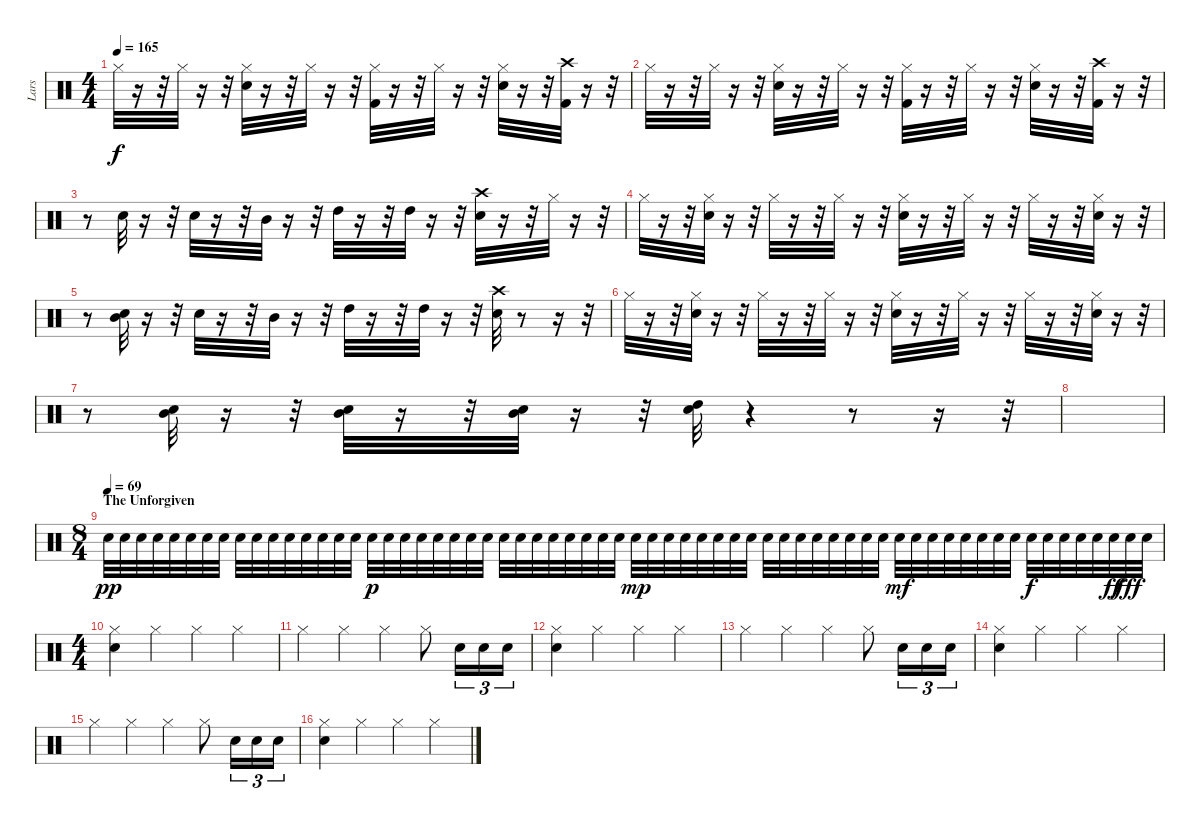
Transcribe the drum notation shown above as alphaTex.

\track ("Lars" "Lars") {instrument percussion}
\staff {score}
\articulation defaults
\ts (4 4)
\tempo 165
\clef neutral
\ks c "Hi-Hat (closed)".32{dy f}
r.16 r.32 "Hi-Hat (closed)".32 r.16 r.32 ("Snare (hit) 2" "Hi-Hat (closed)").32 r.16 r.32 "Hi-Hat (closed)".32 r.16 r.32 ("Kick (hit) 2" "Hi-Hat (closed)").32 r.16 r.32 "Hi-Hat (closed)".32 r.16 r.32 ("Snare (hit) 2" "Hi-Hat (closed)").32 r.16 r.32 ("Crash high (hit)" "Kick (hit) 2").32 r.16 r.32 |
"Hi-Hat (closed)".32 r.16 r.32 "Hi-Hat (closed)".32 r.16 r.32 ("Snare (hit) 2" "Hi-Hat (closed)").32 r.16 r.32 "Hi-Hat (closed)".32 r.16 r.32 ("Kick (hit) 2" "Hi-Hat (closed)").32 r.16 r.32 "Hi-Hat (closed)".32 r.16 r.32 ("Snare (hit) 2" "Hi-Hat (closed)").32 r.16 r.32 ("Crash high (hit)" "Kick (hit) 2").32 r.16 r.32 |
r.8 "Snare (hit) 2".32 r.16 r.32 "Snare (hit) 2".32 r.16 r.32 "Mid Tom (hit)".32 r.16 r.32 "High Tom (hit)".32 r.16 r.32 "High Tom (hit)".32 r.16 r.32 ("Crash high (hit)" "Snare (hit) 2").32 r.16 r.32 "Hi-Hat (closed)".32 r.16 r.32 |
"Hi-Hat (closed)".32 r.16 r.32 ("Snare (hit) 2" "Hi-Hat (closed)").32 r.16 r.32 "Hi-Hat (closed)".32 r.16 r.32 "Hi-Hat (closed)".32 r.16 r.32 ("Snare (hit) 2" "Hi-Hat (closed)").32 r.16 r.32 "Hi-Hat (closed)".32 r.16 r.32 "Hi-Hat (closed)".32 r.16 r.32 ("Snare (hit) 2" "Hi-Hat (closed)").32 r.16 r.32 |
r.8 ("Mid Tom (hit)" "Snare (hit) 2").32 r.16 r.32 "Snare (hit) 2".32 r.16 r.32 "Mid Tom (hit)".32 r.16 r.32 "High Tom (hit)".32 r.16 r.32 "High Tom (hit)".32 r.16 r.32 ("Crash high (hit)" "Snare (hit) 2").32 r.8 r.16 r.32 |
"Hi-Hat (closed)".32 r.16 r.32 ("Hi-Hat (closed)" "Snare (hit) 2").32 r.16 r.32 "Hi-Hat (closed)".32 r.16 r.32 "Hi-Hat (closed)".32 r.16 r.32 ("Hi-Hat (closed)" "Snare (hit) 2").32 r.16 r.32 "Hi-Hat (closed)".32 r.16 r.32 "Hi-Hat (closed)".32 r.16 r.32 ("Hi-Hat (closed)" "Snare (hit) 2").32 r.16 r.32 |
r.8 ("Mid Tom (hit)" "Snare (hit) 2").32 r.16 r.32 ("Mid Tom (hit)" "Snare (hit) 2").32 r.16 r.32 ("Mid Tom (hit)" "Snare (hit) 2").32 r.16 r.32 ("Snare (hit) 2" "High Tom (hit)").32 r.4 r.8 r.16 r.32 |
|
\ts (8 4)
\section ("" "The Unforgiven")
\tempo (69)
"Electric Snare (hit)".32{dy pp} "Electric Snare (hit)".32 "Electric Snare (hit)".32 "Electric Snare (hit)".32 "Electric Snare (hit)".32 "Electric Snare (hit)".32 "Electric Snare (hit)".32 "Electric Snare (hit)".32 "Electric Snare (hit)".32 "Electric Snare (hit)".32 "Electric Snare (hit)".32 "Electric Snare (hit)".32 "Electric Snare (hit)".32 "Electric Snare (hit)".32 "Electric Snare (hit)".32 "Electric Snare (hit)".32 "Electric Snare (hit)".32{dy p} "Electric Snare (hit)".32 "Electric Snare (hit)".32 "Electric Snare (hit)".32 "Electric Snare (hit)".32 "Electric Snare (hit)".32 "Electric Snare (hit)".32 "Electric Snare (hit)".32 "Electric Snare (hit)".32 "Electric Snare (hit)".32 "Electric Snare (hit)".32 "Electric Snare (hit)".32 "Electric Snare (hit)".32 "Electric Snare (hit)".32 "Electric Snare (hit)".32 "Electric Snare (hit)".32 "Electric Snare (hit)".32{dy mp} "Electric Snare (hit)".32 "Electric Snare (hit)".32 "Electric Snare (hit)".32 "Electric Snare (hit)".32 "Electric Snare (hit)".32 "Electric Snare (hit)".32 "Electric Snare (hit)".32 "Electric Snare (hit)".32 "Electric Snare (hit)".32 "Electric Snare (hit)".32 "Electric Snare (hit)".32 "Electric Snare (hit)".32 "Electric Snare (hit)".32 "Electric Snare (hit)".32 "Electric Snare (hit)".32 "Electric Snare (hit)".32{dy mf} "Electric Snare (hit)".32 "Electric Snare (hit)".32 "Electric Snare (hit)".32 "Electric Snare (hit)".32 "Electric Snare (hit)".32 "Electric Snare (hit)".32 "Electric Snare (hit)".32 "Electric Snare (hit)".32{dy f} "Electric Snare (hit)".32 "Electric Snare (hit)".32 "Electric Snare (hit)".32 "Electric Snare (hit)".32 "Electric Snare (hit)".32{dy ff} "Electric Snare (hit)".32{dy fff} "Electric Snare (hit)".32 |
\ts (4 4)
("Hi-Hat (closed)" "Electric Snare (hit)").4 "Hi-Hat (closed)".4 "Hi-Hat (closed)".4 "Hi-Hat (closed)".4 |
"Hi-Hat (closed)".4 "Hi-Hat (closed)".4 "Hi-Hat (closed)".4 "Hi-Hat (closed)".8 "Electric Snare (hit)".16{tu (3 2)} "Electric Snare (hit)".16{tu (3 2)} "Electric Snare (hit)".16{tu (3 2)} |
("Hi-Hat (closed)" "Electric Snare (hit)").4 "Hi-Hat (closed)".4 "Hi-Hat (closed)".4 "Hi-Hat (closed)".4 |
"Hi-Hat (closed)".4 "Hi-Hat (closed)".4 "Hi-Hat (closed)".4 "Hi-Hat (closed)".8 "Electric Snare (hit)".16{tu (3 2)} "Electric Snare (hit)".16{tu (3 2)} "Electric Snare (hit)".16{tu (3 2)} |
("Hi-Hat (closed)" "Electric Snare (hit)").4 "Hi-Hat (closed)".4 "Hi-Hat (closed)".4 "Hi-Hat (closed)".4 |
"Hi-Hat (closed)".4 "Hi-Hat (closed)".4 "Hi-Hat (closed)".4 "Hi-Hat (closed)".8 "Electric Snare (hit)".16{tu (3 2)} "Electric Snare (hit)".16{tu (3 2)} "Electric Snare (hit)".16{tu (3 2)} |
("Hi-Hat (closed)" "Electric Snare (hit)").4 "Hi-Hat (closed)".4 "Hi-Hat (closed)".4 "Hi-Hat (closed)".4
